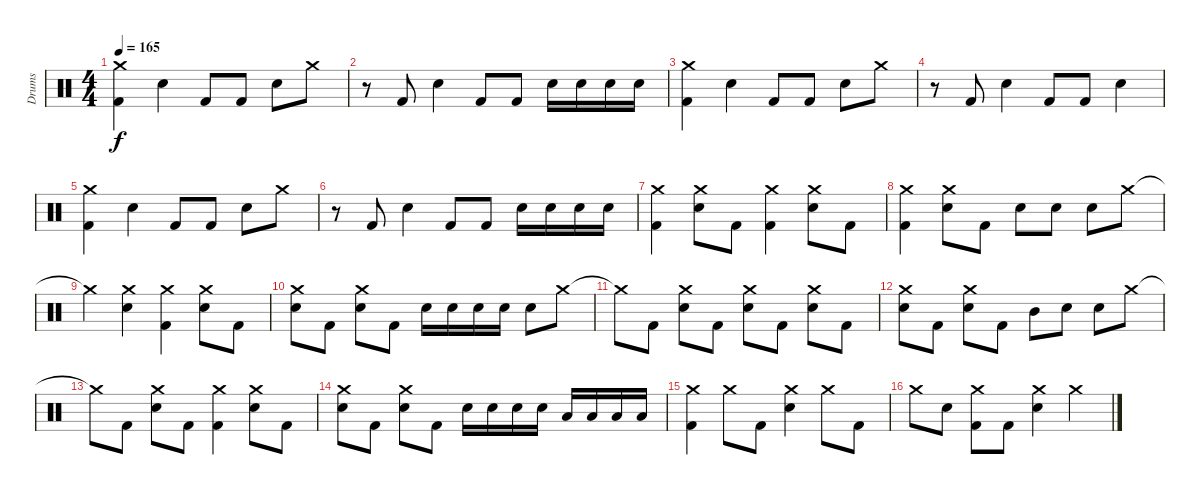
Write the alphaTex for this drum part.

\track ("Drums" "Drums") {instrument percussion}
\staff {score}
\articulation defaults
\ts (4 4)
\tempo 165
\clef neutral
\ks c
("Crash medium (hit)" "Kick (hit) 2").4{dy f} "Snare (hit) 2".4 "Kick (hit) 2".8 "Kick (hit) 2".8 "Snare (hit) 2".8 "Crash medium (hit)".8 |
r.8 "Kick (hit) 2".8 "Snare (hit) 2".4 "Kick (hit) 2".8 "Kick (hit) 2".8 "Snare (hit) 2".16 "Snare (hit) 2".16 "Snare (hit) 2".16 "Snare (hit) 2".16 |
("Crash medium (hit)" "Kick (hit) 2").4 "Snare (hit) 2".4 "Kick (hit) 2".8 "Kick (hit) 2".8 "Snare (hit) 2".8 "Crash medium (hit)".8 |
r.8 "Kick (hit) 2".8 "Snare (hit) 2".4 "Kick (hit) 2".8 "Kick (hit) 2".8 "Snare (hit) 2".4 |
("Crash medium (hit)" "Kick (hit) 2").4 "Snare (hit) 2".4 "Kick (hit) 2".8 "Kick (hit) 2".8 "Snare (hit) 2".8 "Crash medium (hit)".8 |
r.8 "Kick (hit) 2".8 "Snare (hit) 2".4 "Kick (hit) 2".8 "Kick (hit) 2".8 "Snare (hit) 2".16 "Snare (hit) 2".16 "Snare (hit) 2".16 "Snare (hit) 2".16 |
("Crash medium (hit)" "Kick (hit) 2").4 ("Crash medium (hit)" "Snare (hit) 2").8 "Kick (hit) 2".8 ("Crash medium (hit)" "Kick (hit) 2").4 ("Crash medium (hit)" "Snare (hit) 2").8 "Kick (hit) 2".8 |
("Crash medium (hit)" "Kick (hit) 2").4 ("Crash medium (hit)" "Snare (hit) 2").8 "Kick (hit) 2".8 "Snare (hit) 2".8 "Snare (hit) 2".8 "Snare (hit) 2".8 "Crash medium (hit)".8 |
"Crash medium (hit)"{t}.4 ("Crash medium (hit)" "Snare (hit) 2").4 ("Crash medium (hit)" "Kick (hit) 2").4 ("Crash medium (hit)" "Snare (hit) 2").8 "Kick (hit) 2".8 |
("Crash medium (hit)" "Snare (hit) 2").8 "Kick (hit) 2".8 ("Crash medium (hit)" "Snare (hit) 2").8 "Kick (hit) 2".8 "Snare (hit) 2".16 "Snare (hit) 2".16 "Snare (hit) 2".16 "Snare (hit) 2".16 "Snare (hit) 2".8 "Crash medium (hit)".8 |
"Crash medium (hit)"{t}.8 "Kick (hit) 2".8 ("Crash medium (hit)" "Snare (hit) 2").8 "Kick (hit) 2".8 ("Crash medium (hit)" "Snare (hit) 2").8 "Kick (hit) 2".8 ("Crash medium (hit)" "Snare (hit) 2").8 "Kick (hit) 2".8 |
("Crash medium (hit)" "Snare (hit) 2").8 "Kick (hit) 2".8 ("Crash medium (hit)" "Snare (hit) 2").8 "Kick (hit) 2".8 "Mid Tom (hit)".8 "Snare (hit) 2".8 "Snare (hit) 2".8 "Crash medium (hit)".8 |
"Crash medium (hit)"{t}.8 "Kick (hit) 2".8 ("Crash medium (hit)" "Snare (hit) 2").8 "Kick (hit) 2".8 ("Crash medium (hit)" "Kick (hit) 2").4 ("Crash medium (hit)" "Snare (hit) 2").8 "Kick (hit) 2".8 |
("Crash medium (hit)" "Snare (hit) 2").8 "Kick (hit) 2".8 ("Crash medium (hit)" "Snare (hit) 2").8 "Kick (hit) 2".8 "Snare (hit) 2".16 "Snare (hit) 2".16 "Snare (hit) 2".16 "Snare (hit) 2".16 "Low Tom (hit)".16 "Low Tom (hit)".16 "Low Tom (hit)".16 "Low Tom (hit)".16 |
("Crash medium (hit)" "Kick (hit) 2").4 "Crash medium (hit)".8 "Kick (hit) 2".8 ("Crash medium (hit)" "Snare (hit) 2").4 "Crash medium (hit)".8 "Kick (hit) 2".8 |
"Crash medium (hit)".8 "Snare (hit) 2".8 ("Crash medium (hit)" "Kick (hit) 2").8 "Kick (hit) 2".8 ("Crash medium (hit)" "Snare (hit) 2").4 "Crash medium (hit)".4
